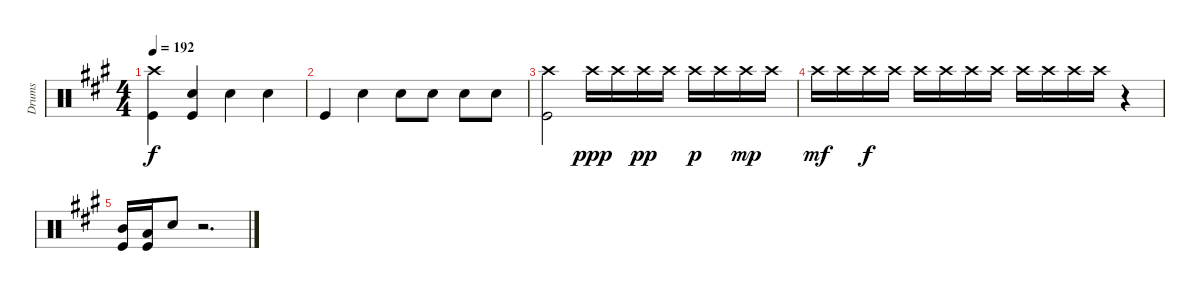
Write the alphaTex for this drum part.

\track ("Drums" "Drums") {instrument percussion}
\staff {score}
\articulation defaults
\ts (4 4)
\tempo 192
\clef neutral
\ks f#minor
("Crash high (hit)" "Kick (hit)").4{dy f} ("Snare (hit) 2"{tr (38 16)} "Kick (hit)").4 "Snare (hit) 2".4 "Snare (hit) 2".4 |
"Kick (hit)".4 "Snare (hit) 2".4 "Snare (hit) 2".8 "Snare (hit) 2".8 "Snare (hit) 2".8 "Snare (hit) 2".8 |
("Crash high (hit)" "Kick (hit)").2 "Crash high (hit)".16{dy ppp} "Crash high (hit)".16 "Crash high (hit)".16{dy pp} "Crash high (hit)".16 "Crash high (hit)".16{dy p} "Crash high (hit)".16 "Crash high (hit)".16{dy mp} "Crash high (hit)".16 |
"Crash high (hit)".16{dy mf} "Crash high (hit)".16 "Crash high (hit)".16{dy f} "Crash high (hit)".16 "Crash high (hit)".16 "Crash high (hit)".16 "Crash high (hit)".16 "Crash high (hit)".16 "Crash high (hit)".16 "Crash high (hit)".16 "Crash high (hit)".16 "Crash high (hit)".16 r.4 |
("Mid Tom (hit)" "Kick (hit)").16 ("Low Tom (hit)" "Kick (hit)").16 "Snare (hit) 2".8 r.2{d}
